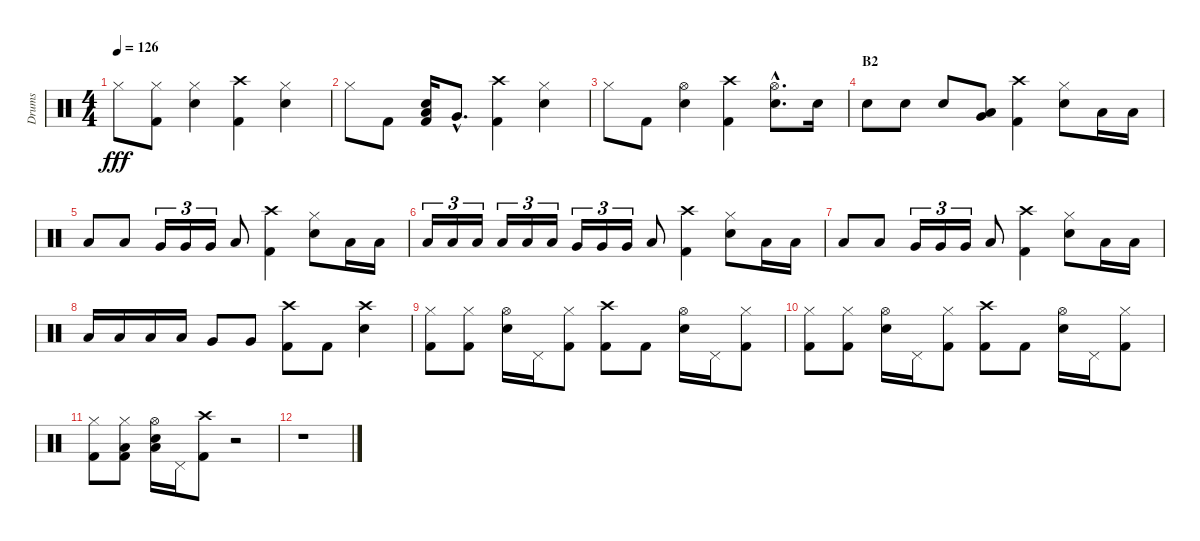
\track ("Drums" "Drums") {instrument percussion}
\staff {score}
\articulation defaults
\ts (4 4)
\tempo 126
\clef neutral
\ks c "Hi-Hat (closed)".8{dy fff}
("Hi-Hat (closed)" "Kick (hit) 2").8 ("Hi-Hat (closed)" "Snare (hit) 2").4 ("Crash high (hit)" "Kick (hit) 2").4 ("Hi-Hat (closed)" "Snare (hit) 2").4 |
"Hi-Hat (closed)".8 "Kick (hit) 2".8 ("Low Tom (hit)" "Snare (hit) 2" "Kick (hit) 2").16 "Very Low Tom (hit)"{hac}.8{d} ("Crash high (hit)" "Kick (hit) 2").4 ("Hi-Hat (closed)" "Snare (hit) 2").4 |
"Hi-Hat (closed)".8 "Kick (hit) 2".8 ("Hi-Hat (open)" "Snare (hit) 2").4 ("Crash high (hit)" "Kick (hit) 2").4 ("Hi-Hat (open)"{hac} "Snare (hit) 2"{hac}).8{d} "Snare (hit) 2".16 |
\section ("" "B2")
"Snare (hit) 2".8 "Snare (hit) 2".8 "Snare (hit) 2".8 ("Very Low Tom (hit)" "Low Floor Tom (hit)").8 ("Crash high (hit)" "Kick (hit) 2").4 ("Hi-Hat (closed)" "Snare (hit) 2").8 "Low Tom (hit)".16 "Low Tom (hit)".16 |
"Low Tom (hit)".8 "Low Tom (hit)".8 "Very Low Tom (hit)".16{tu (3 2)} "Very Low Tom (hit)".16{tu (3 2)} "Very Low Tom (hit)".16{tu (3 2)} "Low Floor Tom (hit)".8 ("Crash high (hit)" "Kick (hit) 2").4 ("Hi-Hat (closed)" "Snare (hit) 2").8 "Low Tom (hit)".16 "Low Tom (hit)".16 |
"Low Tom (hit)".16{tu (3 2)} "Low Tom (hit)".16{tu (3 2)} "Low Tom (hit)".16{tu (3 2)} "Low Tom (hit)".16{tu (3 2)} "Low Tom (hit)".16{tu (3 2)} "Low Tom (hit)".16{tu (3 2)} "Very Low Tom (hit)".16{tu (3 2)} "Very Low Tom (hit)".16{tu (3 2)} "Very Low Tom (hit)".16{tu (3 2)} "Low Floor Tom (hit)".8 ("Crash high (hit)" "Kick (hit) 2").4 ("Hi-Hat (closed)" "Snare (hit) 2").8 "Low Tom (hit)".16 "Low Tom (hit)".16 |
"Low Tom (hit)".8 "Low Tom (hit)".8 "Very Low Tom (hit)".16{tu (3 2)} "Very Low Tom (hit)".16{tu (3 2)} "Very Low Tom (hit)".16{tu (3 2)} "Low Floor Tom (hit)".8 ("Crash high (hit)" "Kick (hit) 2").4 ("Hi-Hat (closed)" "Snare (hit) 2").8 "Low Tom (hit)".16 "Low Tom (hit)".16 |
"Low Tom (hit)".16 "Low Tom (hit)".16 "Low Tom (hit)".16 "Low Tom (hit)".16 "Very Low Tom (hit)".8 "Very Low Tom (hit)".8 ("Crash high (hit)" "Kick (hit) 2").8 "Kick (hit) 2".8 ("Crash high (hit)" "Snare (hit) 2").4 |
("Hi-Hat (closed)" "Kick (hit) 2").8 ("Hi-Hat (closed)" "Kick (hit) 2").8 ("Hi-Hat (open)" "Snare (hit) 2").16 "Pedal Hi-Hat (hit)".16 ("Hi-Hat (closed)" "Kick (hit) 2").8 ("Crash high (hit)" "Kick (hit) 2").8 "Kick (hit) 2".8 ("Hi-Hat (open)" "Snare (hit) 2").16 "Pedal Hi-Hat (hit)".16 ("Hi-Hat (closed)" "Kick (hit) 2").8 |
("Hi-Hat (closed)" "Kick (hit) 2").8 ("Hi-Hat (closed)" "Kick (hit) 2").8 ("Hi-Hat (open)" "Snare (hit) 2").16 "Pedal Hi-Hat (hit)".16 ("Hi-Hat (closed)" "Kick (hit) 2").8 ("Crash high (hit)" "Kick (hit) 2").8 "Kick (hit) 2".8 ("Hi-Hat (open)" "Snare (hit) 2").16 "Pedal Hi-Hat (hit)".16 ("Hi-Hat (closed)" "Kick (hit) 2").8 |
("Hi-Hat (closed)" "Kick (hit) 2").8 ("Hi-Hat (closed)" "Low Floor Tom (hit)" "Kick (hit) 2").8 ("Hi-Hat (open)" "Low Floor Tom (hit)" "Snare (hit) 2").16 "Pedal Hi-Hat (hit)".16 ("Crash high (hit)" "Kick (hit) 2").8 r.2 |
r.1
